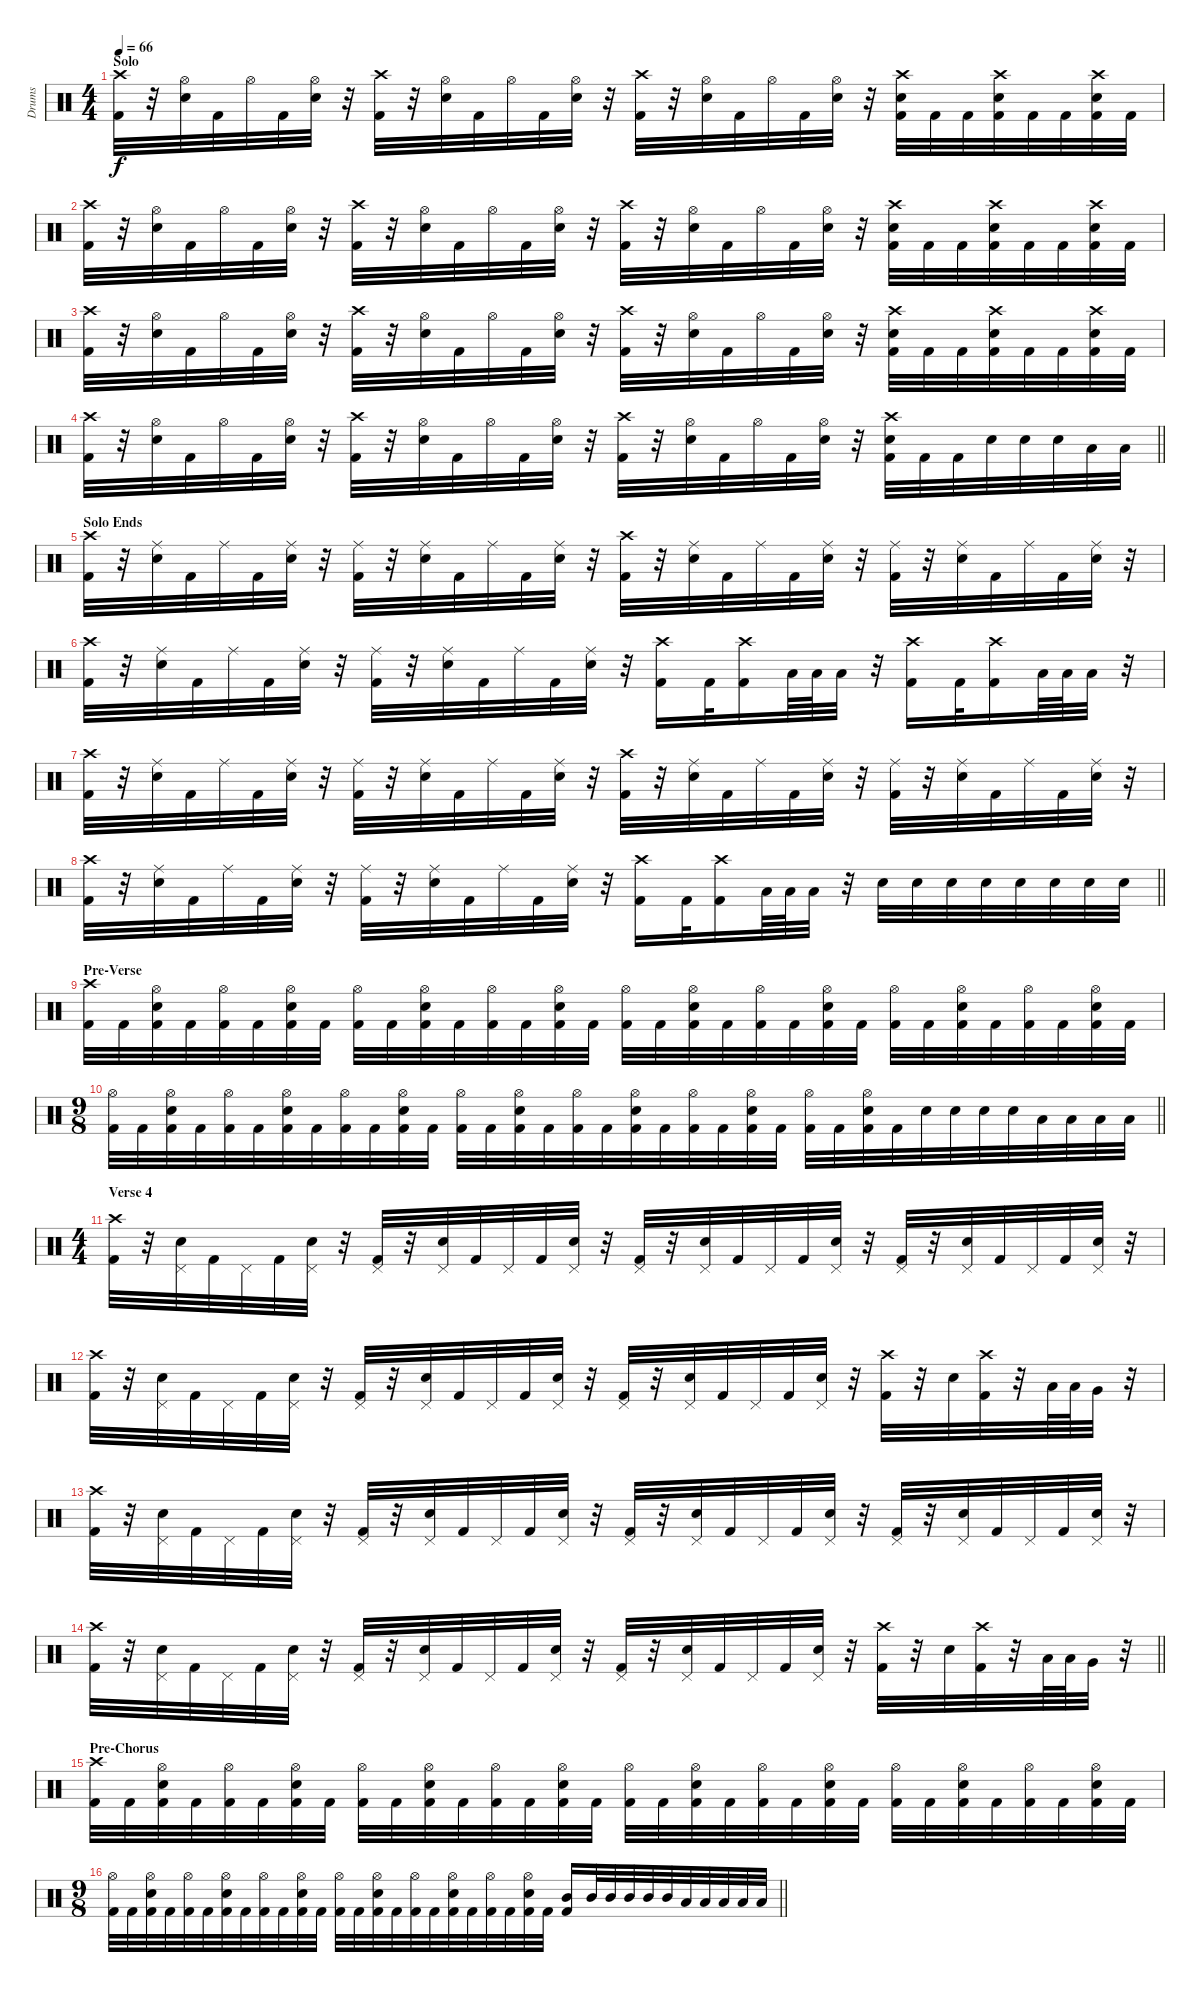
\track ("Drums" "Drums") {instrument percussion}
\staff {score}
\articulation defaults
\ts (4 4)
\section ("" "Solo")
\tempo 66
\clef neutral
\ks c
("Crash high (hit)" "Kick (hit) 2").32{dy f} r.32 ("Hi-Hat (open)" "Snare (hit) 2").32 "Kick (hit) 2".32 "Hi-Hat (open)".32 "Kick (hit) 2".32 ("Hi-Hat (open)" "Snare (hit) 2").32 r.32 ("Crash high (hit)" "Kick (hit) 2").32 r.32 ("Hi-Hat (open)" "Snare (hit) 2").32 "Kick (hit) 2".32 "Hi-Hat (open)".32 "Kick (hit) 2".32 ("Hi-Hat (open)" "Snare (hit) 2").32 r.32 ("Crash high (hit)" "Kick (hit) 2").32 r.32 ("Hi-Hat (open)" "Snare (hit) 2").32 "Kick (hit) 2".32 "Hi-Hat (open)".32 "Kick (hit) 2".32 ("Hi-Hat (open)" "Snare (hit) 2").32 r.32 ("Crash high (hit)" "Snare (hit) 2" "Kick (hit) 2").32 "Kick (hit) 2".32 "Kick (hit) 2".32 ("Crash high (hit)" "Snare (hit) 2" "Kick (hit) 2").32 "Kick (hit) 2".32 "Kick (hit) 2".32 ("Crash high (hit)" "Snare (hit) 2" "Kick (hit) 2").32 "Kick (hit) 2".32 |
("Crash high (hit)" "Kick (hit) 2").32 r.32 ("Hi-Hat (open)" "Snare (hit) 2").32 "Kick (hit) 2".32 "Hi-Hat (open)".32 "Kick (hit) 2".32 ("Hi-Hat (open)" "Snare (hit) 2").32 r.32 ("Crash high (hit)" "Kick (hit) 2").32 r.32 ("Hi-Hat (open)" "Snare (hit) 2").32 "Kick (hit) 2".32 "Hi-Hat (open)".32 "Kick (hit) 2".32 ("Hi-Hat (open)" "Snare (hit) 2").32 r.32 ("Crash high (hit)" "Kick (hit) 2").32 r.32 ("Hi-Hat (open)" "Snare (hit) 2").32 "Kick (hit) 2".32 "Hi-Hat (open)".32 "Kick (hit) 2".32 ("Hi-Hat (open)" "Snare (hit) 2").32 r.32 ("Crash high (hit)" "Snare (hit) 2" "Kick (hit) 2").32 "Kick (hit) 2".32 "Kick (hit) 2".32 ("Crash high (hit)" "Snare (hit) 2" "Kick (hit) 2").32 "Kick (hit) 2".32 "Kick (hit) 2".32 ("Crash high (hit)" "Snare (hit) 2" "Kick (hit) 2").32 "Kick (hit) 2".32 |
("Crash high (hit)" "Kick (hit) 2").32 r.32 ("Hi-Hat (open)" "Snare (hit) 2").32 "Kick (hit) 2".32 "Hi-Hat (open)".32 "Kick (hit) 2".32 ("Hi-Hat (open)" "Snare (hit) 2").32 r.32 ("Crash high (hit)" "Kick (hit) 2").32 r.32 ("Hi-Hat (open)" "Snare (hit) 2").32 "Kick (hit) 2".32 "Hi-Hat (open)".32 "Kick (hit) 2".32 ("Hi-Hat (open)" "Snare (hit) 2").32 r.32 ("Crash high (hit)" "Kick (hit) 2").32 r.32 ("Hi-Hat (open)" "Snare (hit) 2").32 "Kick (hit) 2".32 "Hi-Hat (open)".32 "Kick (hit) 2".32 ("Hi-Hat (open)" "Snare (hit) 2").32 r.32 ("Crash high (hit)" "Snare (hit) 2" "Kick (hit) 2").32 "Kick (hit) 2".32 "Kick (hit) 2".32 ("Crash high (hit)" "Snare (hit) 2" "Kick (hit) 2").32 "Kick (hit) 2".32 "Kick (hit) 2".32 ("Crash high (hit)" "Snare (hit) 2" "Kick (hit) 2").32 "Kick (hit) 2".32 |
\barLineRight lightlight
("Crash high (hit)" "Kick (hit) 2").32 r.32 ("Hi-Hat (open)" "Snare (hit) 2").32 "Kick (hit) 2".32 "Hi-Hat (open)".32 "Kick (hit) 2".32 ("Hi-Hat (open)" "Snare (hit) 2").32 r.32 ("Crash high (hit)" "Kick (hit) 2").32 r.32 ("Hi-Hat (open)" "Snare (hit) 2").32 "Kick (hit) 2".32 "Hi-Hat (open)".32 "Kick (hit) 2".32 ("Hi-Hat (open)" "Snare (hit) 2").32 r.32 ("Crash high (hit)" "Kick (hit) 2").32 r.32 ("Hi-Hat (open)" "Snare (hit) 2").32 "Kick (hit) 2".32 "Hi-Hat (open)".32 "Kick (hit) 2".32 ("Hi-Hat (open)" "Snare (hit) 2").32 r.32 ("Crash high (hit)" "Snare (hit) 2" "Kick (hit) 2").32 "Kick (hit) 2".32 "Kick (hit) 2".32 "Snare (hit) 2".32 "Snare (hit) 2".32 "Snare (hit) 2".32 "Low Tom (hit)".32 "Low Tom (hit)".32 |
\section ("" "Solo Ends")
("Crash high (hit)" "Kick (hit) 2").32 r.32 ("Ride (middle)" "Snare (hit) 2").32 "Kick (hit) 2".32 "Ride (middle)".32 "Kick (hit) 2".32 ("Ride (middle)" "Snare (hit) 2").32 r.32 ("Ride (middle)" "Kick (hit) 2").32 r.32 ("Ride (middle)" "Snare (hit) 2").32 "Kick (hit) 2".32 "Ride (middle)".32 "Kick (hit) 2".32 ("Ride (middle)" "Snare (hit) 2").32 r.32 ("Crash high (hit)" "Kick (hit) 2").32 r.32 ("Ride (middle)" "Snare (hit) 2").32 "Kick (hit) 2".32 "Ride (middle)".32 "Kick (hit) 2".32 ("Ride (middle)" "Snare (hit) 2").32 r.32 ("Ride (middle)" "Kick (hit) 2").32 r.32 ("Ride (middle)" "Snare (hit) 2").32 "Kick (hit) 2".32 "Ride (middle)".32 "Kick (hit) 2".32 ("Ride (middle)" "Snare (hit) 2").32 r.32 |
("Crash high (hit)" "Kick (hit) 2").32 r.32 ("Ride (middle)" "Snare (hit) 2").32 "Kick (hit) 2".32 "Ride (middle)".32 "Kick (hit) 2".32 ("Ride (middle)" "Snare (hit) 2").32 r.32 ("Ride (middle)" "Kick (hit) 2").32 r.32 ("Ride (middle)" "Snare (hit) 2").32 "Kick (hit) 2".32 "Ride (middle)".32 "Kick (hit) 2".32 ("Ride (middle)" "Snare (hit) 2").32 r.32 ("Crash high (hit)" "Kick (hit) 2").16 "Kick (hit) 2".32 ("Crash high (hit)" "Kick (hit) 2").16 "Low Tom (hit)".64 "Low Tom (hit)".64 "Low Tom (hit)".32 r.32 ("Crash high (hit)" "Kick (hit) 2").16 "Kick (hit) 2".32 ("Crash high (hit)" "Kick (hit) 2").16 "Low Tom (hit)".64 "Low Tom (hit)".64 "Low Tom (hit)".32 r.32 |
("Crash high (hit)" "Kick (hit) 2").32 r.32 ("Ride (middle)" "Snare (hit) 2").32 "Kick (hit) 2".32 "Ride (middle)".32 "Kick (hit) 2".32 ("Ride (middle)" "Snare (hit) 2").32 r.32 ("Ride (middle)" "Kick (hit) 2").32 r.32 ("Ride (middle)" "Snare (hit) 2").32 "Kick (hit) 2".32 "Ride (middle)".32 "Kick (hit) 2".32 ("Ride (middle)" "Snare (hit) 2").32 r.32 ("Crash high (hit)" "Kick (hit) 2").32 r.32 ("Ride (middle)" "Snare (hit) 2").32 "Kick (hit) 2".32 "Ride (middle)".32 "Kick (hit) 2".32 ("Ride (middle)" "Snare (hit) 2").32 r.32 ("Ride (middle)" "Kick (hit) 2").32 r.32 ("Ride (middle)" "Snare (hit) 2").32 "Kick (hit) 2".32 "Ride (middle)".32 "Kick (hit) 2".32 ("Ride (middle)" "Snare (hit) 2").32 r.32 |
\barLineRight lightlight
("Crash high (hit)" "Kick (hit) 2").32 r.32 ("Ride (middle)" "Snare (hit) 2").32 "Kick (hit) 2".32 "Ride (middle)".32 "Kick (hit) 2".32 ("Ride (middle)" "Snare (hit) 2").32 r.32 ("Ride (middle)" "Kick (hit) 2").32 r.32 ("Ride (middle)" "Snare (hit) 2").32 "Kick (hit) 2".32 "Ride (middle)".32 "Kick (hit) 2".32 ("Ride (middle)" "Snare (hit) 2").32 r.32 ("Crash high (hit)" "Kick (hit) 2").16 "Kick (hit) 2".32 ("Crash high (hit)" "Kick (hit) 2").16 "Low Tom (hit)".64 "Low Tom (hit)".64 "Low Tom (hit)".32 r.32 "Snare (hit) 2".32 "Snare (hit) 2".32 "Snare (hit) 2".32 "Snare (hit) 2".32 "Snare (hit) 2".32 "Snare (hit) 2".32 "Snare (hit) 2".32 "Snare (hit) 2".32 |
\section ("" "Pre-Verse")
("Crash high (hit)" "Kick (hit) 2").32 "Kick (hit) 2".32 ("Hi-Hat (open)" "Snare (hit) 2" "Kick (hit) 2").32 "Kick (hit) 2".32 ("Hi-Hat (open)" "Kick (hit) 2").32 "Kick (hit) 2".32 ("Hi-Hat (open)" "Snare (hit) 2" "Kick (hit) 2").32 "Kick (hit) 2".32 ("Hi-Hat (open)" "Kick (hit) 2").32 "Kick (hit) 2".32 ("Hi-Hat (open)" "Snare (hit) 2" "Kick (hit) 2").32 "Kick (hit) 2".32 ("Hi-Hat (open)" "Kick (hit) 2").32 "Kick (hit) 2".32 ("Hi-Hat (open)" "Snare (hit) 2" "Kick (hit) 2").32 "Kick (hit) 2".32 ("Hi-Hat (open)" "Kick (hit) 2").32 "Kick (hit) 2".32 ("Hi-Hat (open)" "Snare (hit) 2" "Kick (hit) 2").32 "Kick (hit) 2".32 ("Hi-Hat (open)" "Kick (hit) 2").32 "Kick (hit) 2".32 ("Hi-Hat (open)" "Snare (hit) 2" "Kick (hit) 2").32 "Kick (hit) 2".32 ("Hi-Hat (open)" "Kick (hit) 2").32 "Kick (hit) 2".32 ("Hi-Hat (open)" "Snare (hit) 2" "Kick (hit) 2").32 "Kick (hit) 2".32 ("Hi-Hat (open)" "Kick (hit) 2").32 "Kick (hit) 2".32 ("Hi-Hat (open)" "Snare (hit) 2" "Kick (hit) 2").32 "Kick (hit) 2".32 |
\ts (9 8)
\barLineRight lightlight
("Hi-Hat (open)" "Kick (hit) 2").32 "Kick (hit) 2".32 ("Hi-Hat (open)" "Snare (hit) 2" "Kick (hit) 2").32 "Kick (hit) 2".32 ("Hi-Hat (open)" "Kick (hit) 2").32 "Kick (hit) 2".32 ("Hi-Hat (open)" "Snare (hit) 2" "Kick (hit) 2").32 "Kick (hit) 2".32 ("Hi-Hat (open)" "Kick (hit) 2").32 "Kick (hit) 2".32 ("Hi-Hat (open)" "Snare (hit) 2" "Kick (hit) 2").32 "Kick (hit) 2".32 ("Hi-Hat (open)" "Kick (hit) 2").32 "Kick (hit) 2".32 ("Hi-Hat (open)" "Snare (hit) 2" "Kick (hit) 2").32 "Kick (hit) 2".32 ("Hi-Hat (open)" "Kick (hit) 2").32 "Kick (hit) 2".32 ("Hi-Hat (open)" "Snare (hit) 2" "Kick (hit) 2").32 "Kick (hit) 2".32 ("Hi-Hat (open)" "Kick (hit) 2").32 "Kick (hit) 2".32 ("Hi-Hat (open)" "Snare (hit) 2" "Kick (hit) 2").32 "Kick (hit) 2".32 ("Hi-Hat (open)" "Kick (hit) 2").32 "Kick (hit) 2".32 ("Hi-Hat (open)" "Snare (hit) 2" "Kick (hit) 2").32 "Kick (hit) 2".32 "Snare (hit) 2".32 "Snare (hit) 2".32 "Snare (hit) 2".32 "Snare (hit) 2".32 "Low Tom (hit)".32 "Low Tom (hit)".32 "Low Tom (hit)".32 "Low Tom (hit)".32 |
\ts (4 4)
\section ("" "Verse 4")
("Crash high (hit)" "Kick (hit) 2").32 r.32 ("Pedal Hi-Hat (hit)" "Snare (hit) 2").32 "Kick (hit) 2".32 "Pedal Hi-Hat (hit)".32 "Kick (hit) 2".32 ("Pedal Hi-Hat (hit)" "Snare (hit) 2").32 r.32 ("Pedal Hi-Hat (hit)" "Kick (hit) 2").32 r.32 ("Pedal Hi-Hat (hit)" "Snare (hit) 2").32 "Kick (hit) 2".32 "Pedal Hi-Hat (hit)".32 "Kick (hit) 2".32 ("Pedal Hi-Hat (hit)" "Snare (hit) 2").32 r.32 ("Pedal Hi-Hat (hit)" "Kick (hit) 2").32 r.32 ("Pedal Hi-Hat (hit)" "Snare (hit) 2").32 "Kick (hit) 2".32 "Pedal Hi-Hat (hit)".32 "Kick (hit) 2".32 ("Pedal Hi-Hat (hit)" "Snare (hit) 2").32 r.32 ("Pedal Hi-Hat (hit)" "Kick (hit) 2").32 r.32 ("Pedal Hi-Hat (hit)" "Snare (hit) 2").32 "Kick (hit) 2".32 "Pedal Hi-Hat (hit)".32 "Kick (hit) 2".32 ("Pedal Hi-Hat (hit)" "Snare (hit) 2").32 r.32 |
("Crash high (hit)" "Kick (hit) 2").32 r.32 ("Pedal Hi-Hat (hit)" "Snare (hit) 2").32 "Kick (hit) 2".32 "Pedal Hi-Hat (hit)".32 "Kick (hit) 2".32 ("Pedal Hi-Hat (hit)" "Snare (hit) 2").32 r.32 ("Pedal Hi-Hat (hit)" "Kick (hit) 2").32 r.32 ("Pedal Hi-Hat (hit)" "Snare (hit) 2").32 "Kick (hit) 2".32 "Pedal Hi-Hat (hit)".32 "Kick (hit) 2".32 ("Pedal Hi-Hat (hit)" "Snare (hit) 2").32 r.32 ("Pedal Hi-Hat (hit)" "Kick (hit) 2").32 r.32 ("Pedal Hi-Hat (hit)" "Snare (hit) 2").32 "Kick (hit) 2".32 "Pedal Hi-Hat (hit)".32 "Kick (hit) 2".32 ("Pedal Hi-Hat (hit)" "Snare (hit) 2").32 r.32 ("Crash high (hit)" "Kick (hit) 2").32 r.32 "Snare (hit) 2".32 ("Crash high (hit)" "Kick (hit) 2").32 r.32 "Low Tom (hit)".64 "Low Tom (hit)".64 "Very Low Tom (hit)".32 r.32 |
("Crash high (hit)" "Kick (hit) 2").32 r.32 ("Pedal Hi-Hat (hit)" "Snare (hit) 2").32 "Kick (hit) 2".32 "Pedal Hi-Hat (hit)".32 "Kick (hit) 2".32 ("Pedal Hi-Hat (hit)" "Snare (hit) 2").32 r.32 ("Pedal Hi-Hat (hit)" "Kick (hit) 2").32 r.32 ("Pedal Hi-Hat (hit)" "Snare (hit) 2").32 "Kick (hit) 2".32 "Pedal Hi-Hat (hit)".32 "Kick (hit) 2".32 ("Pedal Hi-Hat (hit)" "Snare (hit) 2").32 r.32 ("Pedal Hi-Hat (hit)" "Kick (hit) 2").32 r.32 ("Pedal Hi-Hat (hit)" "Snare (hit) 2").32 "Kick (hit) 2".32 "Pedal Hi-Hat (hit)".32 "Kick (hit) 2".32 ("Pedal Hi-Hat (hit)" "Snare (hit) 2").32 r.32 ("Pedal Hi-Hat (hit)" "Kick (hit) 2").32 r.32 ("Pedal Hi-Hat (hit)" "Snare (hit) 2").32 "Kick (hit) 2".32 "Pedal Hi-Hat (hit)".32 "Kick (hit) 2".32 ("Pedal Hi-Hat (hit)" "Snare (hit) 2").32 r.32 |
\barLineRight lightlight
("Crash high (hit)" "Kick (hit) 2").32 r.32 ("Pedal Hi-Hat (hit)" "Snare (hit) 2").32 "Kick (hit) 2".32 "Pedal Hi-Hat (hit)".32 "Kick (hit) 2".32 ("Pedal Hi-Hat (hit)" "Snare (hit) 2").32 r.32 ("Pedal Hi-Hat (hit)" "Kick (hit) 2").32 r.32 ("Pedal Hi-Hat (hit)" "Snare (hit) 2").32 "Kick (hit) 2".32 "Pedal Hi-Hat (hit)".32 "Kick (hit) 2".32 ("Pedal Hi-Hat (hit)" "Snare (hit) 2").32 r.32 ("Pedal Hi-Hat (hit)" "Kick (hit) 2").32 r.32 ("Pedal Hi-Hat (hit)" "Snare (hit) 2").32 "Kick (hit) 2".32 "Pedal Hi-Hat (hit)".32 "Kick (hit) 2".32 ("Pedal Hi-Hat (hit)" "Snare (hit) 2").32 r.32 ("Crash high (hit)" "Kick (hit) 2").32 r.32 "Snare (hit) 2".32 ("Crash high (hit)" "Kick (hit) 2").32 r.32 "Low Tom (hit)".64 "Low Tom (hit)".64 "Very Low Tom (hit)".32 r.32 |
\section ("" "Pre-Chorus")
("Crash high (hit)" "Kick (hit) 2").32 "Kick (hit) 2".32 ("Hi-Hat (open)" "Snare (hit) 2" "Kick (hit) 2").32 "Kick (hit) 2".32 ("Hi-Hat (open)" "Kick (hit) 2").32 "Kick (hit) 2".32 ("Hi-Hat (open)" "Snare (hit) 2" "Kick (hit) 2").32 "Kick (hit) 2".32 ("Hi-Hat (open)" "Kick (hit) 2").32 "Kick (hit) 2".32 ("Hi-Hat (open)" "Snare (hit) 2" "Kick (hit) 2").32 "Kick (hit) 2".32 ("Hi-Hat (open)" "Kick (hit) 2").32 "Kick (hit) 2".32 ("Hi-Hat (open)" "Snare (hit) 2" "Kick (hit) 2").32 "Kick (hit) 2".32 ("Hi-Hat (open)" "Kick (hit) 2").32 "Kick (hit) 2".32 ("Hi-Hat (open)" "Snare (hit) 2" "Kick (hit) 2").32 "Kick (hit) 2".32 ("Hi-Hat (open)" "Kick (hit) 2").32 "Kick (hit) 2".32 ("Hi-Hat (open)" "Snare (hit) 2" "Kick (hit) 2").32 "Kick (hit) 2".32 ("Hi-Hat (open)" "Kick (hit) 2").32 "Kick (hit) 2".32 ("Hi-Hat (open)" "Snare (hit) 2" "Kick (hit) 2").32 "Kick (hit) 2".32 ("Hi-Hat (open)" "Kick (hit) 2").32 "Kick (hit) 2".32 ("Hi-Hat (open)" "Snare (hit) 2" "Kick (hit) 2").32 "Kick (hit) 2".32 |
\ts (9 8)
\barLineRight lightlight
("Hi-Hat (open)" "Kick (hit) 2").32 "Kick (hit) 2".32 ("Hi-Hat (open)" "Snare (hit) 2" "Kick (hit) 2").32 "Kick (hit) 2".32 ("Hi-Hat (open)" "Kick (hit) 2").32 "Kick (hit) 2".32 ("Hi-Hat (open)" "Snare (hit) 2" "Kick (hit) 2").32 "Kick (hit) 2".32 ("Hi-Hat (open)" "Kick (hit) 2").32 "Kick (hit) 2".32 ("Hi-Hat (open)" "Snare (hit) 2" "Kick (hit) 2").32 "Kick (hit) 2".32 ("Hi-Hat (open)" "Kick (hit) 2").32 "Kick (hit) 2".32 ("Hi-Hat (open)" "Snare (hit) 2" "Kick (hit) 2").32 "Kick (hit) 2".32 ("Hi-Hat (open)" "Kick (hit) 2").32 "Kick (hit) 2".32 ("Hi-Hat (open)" "Snare (hit) 2" "Kick (hit) 2").32 "Kick (hit) 2".32 ("Hi-Hat (open)" "Kick (hit) 2").32 "Kick (hit) 2".32 ("Hi-Hat (open)" "Snare (hit) 2" "Kick (hit) 2").32 "Kick (hit) 2".32 ("Mid Tom (hit)" "Kick (hit) 2").16 "Mid Tom (hit)".32 "Mid Tom (hit)".32 "Mid Tom (hit)".32 "Mid Tom (hit)".32 "Mid Tom (hit)".32 "Low Tom (hit)".32 "Low Tom (hit)".32 "Low Tom (hit)".32 "Low Tom (hit)".32 "Low Tom (hit)".32
